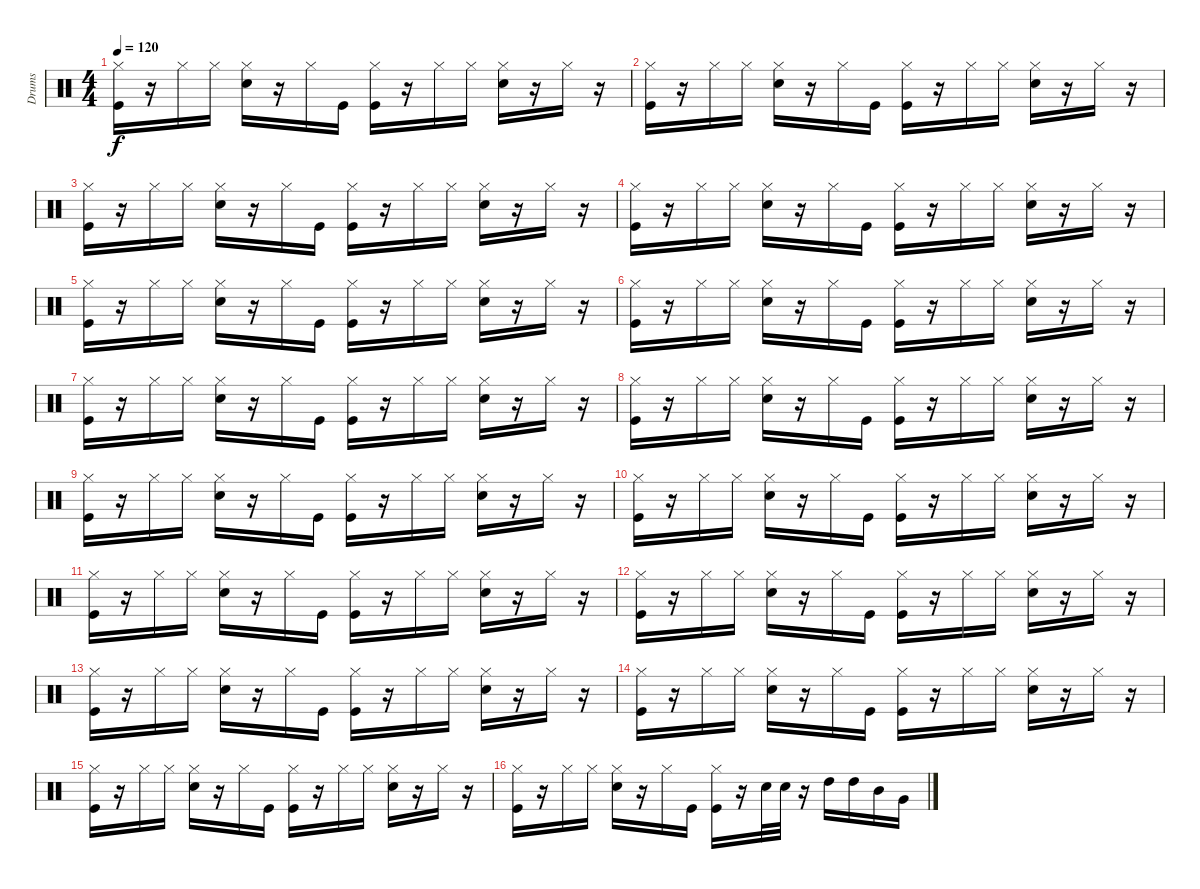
\track ("Drums" "Drums") {instrument percussion}
\staff {score}
\articulation defaults
\ts (4 4)
\tempo 120
\clef neutral
\ks c
("Kick (hit)" "Hi-Hat (closed)").16{dy f} r.16 "Hi-Hat (closed)".16 "Hi-Hat (closed)".16 ("Snare (hit) 2" "Hi-Hat (closed)").16 r.16 "Hi-Hat (closed)".16 "Kick (hit)".16 ("Kick (hit)" "Hi-Hat (closed)").16 r.16 "Hi-Hat (closed)".16 "Hi-Hat (closed)".16 ("Snare (hit) 2" "Hi-Hat (closed)").16 r.16 "Hi-Hat (closed)".16 r.16 |
("Kick (hit)" "Hi-Hat (closed)").16 r.16 "Hi-Hat (closed)".16 "Hi-Hat (closed)".16 ("Snare (hit) 2" "Hi-Hat (closed)").16 r.16 "Hi-Hat (closed)".16 "Kick (hit)".16 ("Kick (hit)" "Hi-Hat (closed)").16 r.16 "Hi-Hat (closed)".16 "Hi-Hat (closed)".16 ("Snare (hit) 2" "Hi-Hat (closed)").16 r.16 "Hi-Hat (closed)".16 r.16 |
("Kick (hit)" "Hi-Hat (closed)").16 r.16 "Hi-Hat (closed)".16 "Hi-Hat (closed)".16 ("Snare (hit) 2" "Hi-Hat (closed)").16 r.16 "Hi-Hat (closed)".16 "Kick (hit)".16 ("Kick (hit)" "Hi-Hat (closed)").16 r.16 "Hi-Hat (closed)".16 "Hi-Hat (closed)".16 ("Snare (hit) 2" "Hi-Hat (closed)").16 r.16 "Hi-Hat (closed)".16 r.16 |
("Kick (hit)" "Hi-Hat (closed)").16 r.16 "Hi-Hat (closed)".16 "Hi-Hat (closed)".16 ("Snare (hit) 2" "Hi-Hat (closed)").16 r.16 "Hi-Hat (closed)".16 "Kick (hit)".16 ("Kick (hit)" "Hi-Hat (closed)").16 r.16 "Hi-Hat (closed)".16 "Hi-Hat (closed)".16 ("Snare (hit) 2" "Hi-Hat (closed)").16 r.16 "Hi-Hat (closed)".16 r.16 |
("Kick (hit)" "Hi-Hat (closed)").16 r.16 "Hi-Hat (closed)".16 "Hi-Hat (closed)".16 ("Snare (hit) 2" "Hi-Hat (closed)").16 r.16 "Hi-Hat (closed)".16 "Kick (hit)".16 ("Kick (hit)" "Hi-Hat (closed)").16 r.16 "Hi-Hat (closed)".16 "Hi-Hat (closed)".16 ("Snare (hit) 2" "Hi-Hat (closed)").16 r.16 "Hi-Hat (closed)".16 r.16 |
("Kick (hit)" "Hi-Hat (closed)").16 r.16 "Hi-Hat (closed)".16 "Hi-Hat (closed)".16 ("Snare (hit) 2" "Hi-Hat (closed)").16 r.16 "Hi-Hat (closed)".16 "Kick (hit)".16 ("Kick (hit)" "Hi-Hat (closed)").16 r.16 "Hi-Hat (closed)".16 "Hi-Hat (closed)".16 ("Snare (hit) 2" "Hi-Hat (closed)").16 r.16 "Hi-Hat (closed)".16 r.16 |
("Kick (hit)" "Hi-Hat (closed)").16 r.16 "Hi-Hat (closed)".16 "Hi-Hat (closed)".16 ("Snare (hit) 2" "Hi-Hat (closed)").16 r.16 "Hi-Hat (closed)".16 "Kick (hit)".16 ("Kick (hit)" "Hi-Hat (closed)").16 r.16 "Hi-Hat (closed)".16 "Hi-Hat (closed)".16 ("Snare (hit) 2" "Hi-Hat (closed)").16 r.16 "Hi-Hat (closed)".16 r.16 |
("Kick (hit)" "Hi-Hat (closed)").16 r.16 "Hi-Hat (closed)".16 "Hi-Hat (closed)".16 ("Snare (hit) 2" "Hi-Hat (closed)").16 r.16 "Hi-Hat (closed)".16 "Kick (hit)".16 ("Kick (hit)" "Hi-Hat (closed)").16 r.16 "Hi-Hat (closed)".16 "Hi-Hat (closed)".16 ("Snare (hit) 2" "Hi-Hat (closed)").16 r.16 "Hi-Hat (closed)".16 r.16 |
("Kick (hit)" "Hi-Hat (closed)").16 r.16 "Hi-Hat (closed)".16 "Hi-Hat (closed)".16 ("Snare (hit) 2" "Hi-Hat (closed)").16 r.16 "Hi-Hat (closed)".16 "Kick (hit)".16 ("Kick (hit)" "Hi-Hat (closed)").16 r.16 "Hi-Hat (closed)".16 "Hi-Hat (closed)".16 ("Snare (hit) 2" "Hi-Hat (closed)").16 r.16 "Hi-Hat (closed)".16 r.16 |
("Kick (hit)" "Hi-Hat (closed)").16 r.16 "Hi-Hat (closed)".16 "Hi-Hat (closed)".16 ("Snare (hit) 2" "Hi-Hat (closed)").16 r.16 "Hi-Hat (closed)".16 "Kick (hit)".16 ("Kick (hit)" "Hi-Hat (closed)").16 r.16 "Hi-Hat (closed)".16 "Hi-Hat (closed)".16 ("Snare (hit) 2" "Hi-Hat (closed)").16 r.16 "Hi-Hat (closed)".16 r.16 |
("Kick (hit)" "Hi-Hat (closed)").16 r.16 "Hi-Hat (closed)".16 "Hi-Hat (closed)".16 ("Snare (hit) 2" "Hi-Hat (closed)").16 r.16 "Hi-Hat (closed)".16 "Kick (hit)".16 ("Kick (hit)" "Hi-Hat (closed)").16 r.16 "Hi-Hat (closed)".16 "Hi-Hat (closed)".16 ("Snare (hit) 2" "Hi-Hat (closed)").16 r.16 "Hi-Hat (closed)".16 r.16 |
("Kick (hit)" "Hi-Hat (closed)").16 r.16 "Hi-Hat (closed)".16 "Hi-Hat (closed)".16 ("Snare (hit) 2" "Hi-Hat (closed)").16 r.16 "Hi-Hat (closed)".16 "Kick (hit)".16 ("Kick (hit)" "Hi-Hat (closed)").16 r.16 "Hi-Hat (closed)".16 "Hi-Hat (closed)".16 ("Snare (hit) 2" "Hi-Hat (closed)").16 r.16 "Hi-Hat (closed)".16 r.16 |
("Kick (hit)" "Hi-Hat (closed)").16 r.16 "Hi-Hat (closed)".16 "Hi-Hat (closed)".16 ("Snare (hit) 2" "Hi-Hat (closed)").16 r.16 "Hi-Hat (closed)".16 "Kick (hit)".16 ("Kick (hit)" "Hi-Hat (closed)").16 r.16 "Hi-Hat (closed)".16 "Hi-Hat (closed)".16 ("Snare (hit) 2" "Hi-Hat (closed)").16 r.16 "Hi-Hat (closed)".16 r.16 |
("Kick (hit)" "Hi-Hat (closed)").16 r.16 "Hi-Hat (closed)".16 "Hi-Hat (closed)".16 ("Snare (hit) 2" "Hi-Hat (closed)").16 r.16 "Hi-Hat (closed)".16 "Kick (hit)".16 ("Kick (hit)" "Hi-Hat (closed)").16 r.16 "Hi-Hat (closed)".16 "Hi-Hat (closed)".16 ("Snare (hit) 2" "Hi-Hat (closed)").16 r.16 "Hi-Hat (closed)".16 r.16 |
("Kick (hit)" "Hi-Hat (closed)").16 r.16 "Hi-Hat (closed)".16 "Hi-Hat (closed)".16 ("Snare (hit) 2" "Hi-Hat (closed)").16 r.16 "Hi-Hat (closed)".16 "Kick (hit)".16 ("Kick (hit)" "Hi-Hat (closed)").16 r.16 "Hi-Hat (closed)".16 "Hi-Hat (closed)".16 ("Snare (hit) 2" "Hi-Hat (closed)").16 r.16 "Hi-Hat (closed)".16 r.16 |
("Kick (hit)" "Hi-Hat (closed)").16 r.16 "Hi-Hat (closed)".16 "Hi-Hat (closed)".16 ("Snare (hit) 2" "Hi-Hat (closed)").16 r.16 "Hi-Hat (closed)".16 "Kick (hit)".16 ("Kick (hit)" "Hi-Hat (closed)").16 r.16 "Snare (hit) 2".32 "Snare (hit) 2".32 r.16 "High Tom (hit)".16 "High Tom (hit)".16 "Mid Tom (hit)".16 "Very Low Tom (hit)".16
